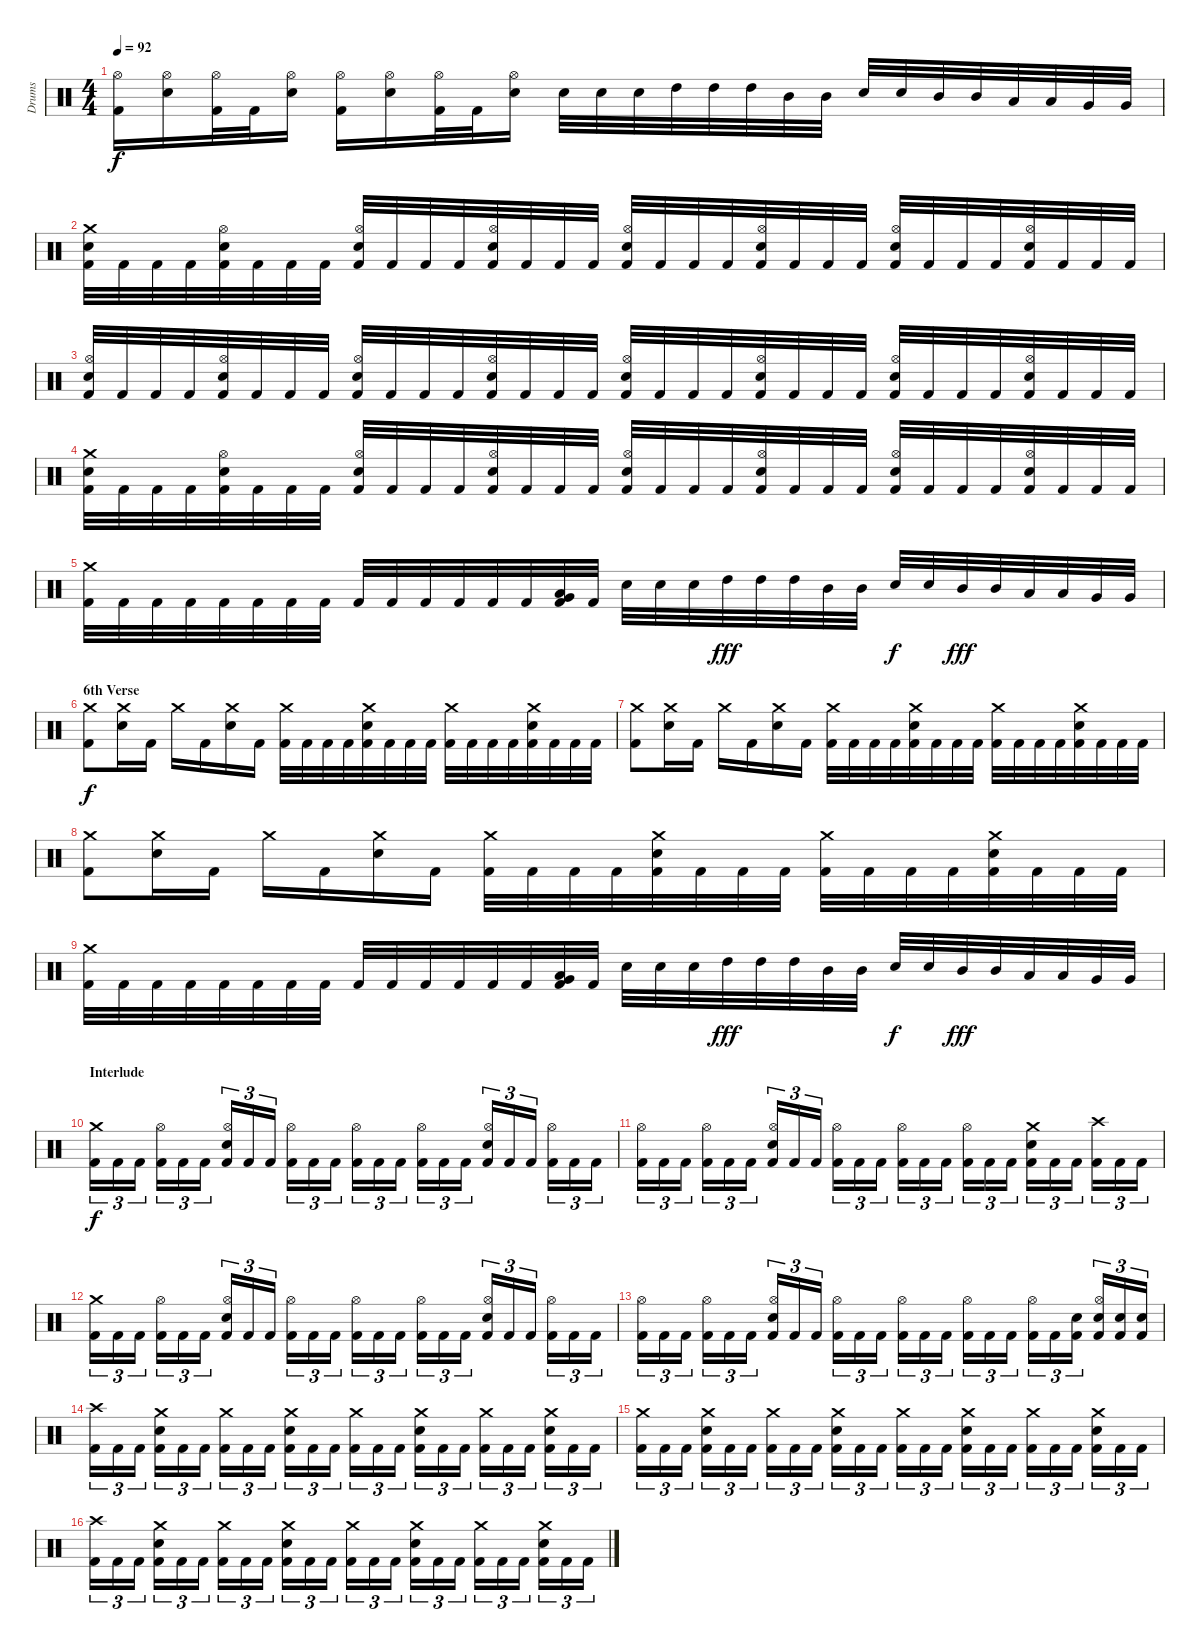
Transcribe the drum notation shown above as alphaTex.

\track ("Drums" "Drums") {instrument percussion}
\staff {score}
\articulation defaults
\ts (4 4)
\tempo 92
\clef neutral
\ks c
("Kick (hit) 2" "Hi-Hat (open)").16{dy f} ("Electric Snare (hit)" "Hi-Hat (open)").16 ("Kick (hit) 2" "Hi-Hat (open)").32 "Kick (hit) 2".32 ("Electric Snare (hit)" "Hi-Hat (open)").16 ("Kick (hit) 2" "Hi-Hat (open)").16 ("Electric Snare (hit)" "Hi-Hat (open)").16 ("Kick (hit) 2" "Hi-Hat (open)").32 "Kick (hit) 2".32 ("Electric Snare (hit)" "Hi-Hat (open)").16 "Electric Snare (hit)".32 "Electric Snare (hit)".32 "Electric Snare (hit)".32 "High Tom (hit)".32 "High Tom (hit)".32 "High Tom (hit)".32 "Mid Tom (hit)".32 "Mid Tom (hit)".32 "Electric Snare (hit)".32 "Electric Snare (hit)".32 "Mid Tom (hit)".32 "Mid Tom (hit)".32 "Low Tom (hit)".32 "Low Tom (hit)".32 "Very Low Tom (hit)".32 "Very Low Tom (hit)".32 |
("Kick (hit) 2" "Electric Snare (hit)" "Crash medium (hit)").32 "Kick (hit) 2".32 "Kick (hit) 2".32 "Kick (hit) 2".32 ("Kick (hit) 2" "Electric Snare (hit)" "Hi-Hat (open)").32 "Kick (hit) 2".32 "Kick (hit) 2".32 "Kick (hit) 2".32 ("Kick (hit) 2" "Electric Snare (hit)" "Hi-Hat (open)").32 "Kick (hit) 2".32 "Kick (hit) 2".32 "Kick (hit) 2".32 ("Kick (hit) 2" "Electric Snare (hit)" "Hi-Hat (open)").32 "Kick (hit) 2".32 "Kick (hit) 2".32 "Kick (hit) 2".32 ("Kick (hit) 2" "Electric Snare (hit)" "Hi-Hat (open)").32 "Kick (hit) 2".32 "Kick (hit) 2".32 "Kick (hit) 2".32 ("Kick (hit) 2" "Electric Snare (hit)" "Hi-Hat (open)").32 "Kick (hit) 2".32 "Kick (hit) 2".32 "Kick (hit) 2".32 ("Kick (hit) 2" "Electric Snare (hit)" "Hi-Hat (open)").32 "Kick (hit) 2".32 "Kick (hit) 2".32 "Kick (hit) 2".32 ("Kick (hit) 2" "Electric Snare (hit)" "Hi-Hat (open)").32 "Kick (hit) 2".32 "Kick (hit) 2".32 "Kick (hit) 2".32 |
("Kick (hit) 2" "Electric Snare (hit)" "Hi-Hat (open)").32 "Kick (hit) 2".32 "Kick (hit) 2".32 "Kick (hit) 2".32 ("Kick (hit) 2" "Electric Snare (hit)" "Hi-Hat (open)").32 "Kick (hit) 2".32 "Kick (hit) 2".32 "Kick (hit) 2".32 ("Kick (hit) 2" "Electric Snare (hit)" "Hi-Hat (open)").32 "Kick (hit) 2".32 "Kick (hit) 2".32 "Kick (hit) 2".32 ("Kick (hit) 2" "Electric Snare (hit)" "Hi-Hat (open)").32 "Kick (hit) 2".32 "Kick (hit) 2".32 "Kick (hit) 2".32 ("Kick (hit) 2" "Electric Snare (hit)" "Hi-Hat (open)").32 "Kick (hit) 2".32 "Kick (hit) 2".32 "Kick (hit) 2".32 ("Kick (hit) 2" "Electric Snare (hit)" "Hi-Hat (open)").32 "Kick (hit) 2".32 "Kick (hit) 2".32 "Kick (hit) 2".32 ("Kick (hit) 2" "Electric Snare (hit)" "Hi-Hat (open)").32 "Kick (hit) 2".32 "Kick (hit) 2".32 "Kick (hit) 2".32 ("Kick (hit) 2" "Electric Snare (hit)" "Hi-Hat (open)").32 "Kick (hit) 2".32 "Kick (hit) 2".32 "Kick (hit) 2".32 |
("Kick (hit) 2" "Electric Snare (hit)" "Crash medium (hit)").32 "Kick (hit) 2".32 "Kick (hit) 2".32 "Kick (hit) 2".32 ("Kick (hit) 2" "Electric Snare (hit)" "Hi-Hat (open)").32 "Kick (hit) 2".32 "Kick (hit) 2".32 "Kick (hit) 2".32 ("Kick (hit) 2" "Electric Snare (hit)" "Hi-Hat (open)").32 "Kick (hit) 2".32 "Kick (hit) 2".32 "Kick (hit) 2".32 ("Kick (hit) 2" "Electric Snare (hit)" "Hi-Hat (open)").32 "Kick (hit) 2".32 "Kick (hit) 2".32 "Kick (hit) 2".32 ("Kick (hit) 2" "Electric Snare (hit)" "Hi-Hat (open)").32 "Kick (hit) 2".32 "Kick (hit) 2".32 "Kick (hit) 2".32 ("Kick (hit) 2" "Electric Snare (hit)" "Hi-Hat (open)").32 "Kick (hit) 2".32 "Kick (hit) 2".32 "Kick (hit) 2".32 ("Kick (hit) 2" "Electric Snare (hit)" "Hi-Hat (open)").32 "Kick (hit) 2".32 "Kick (hit) 2".32 "Kick (hit) 2".32 ("Kick (hit) 2" "Electric Snare (hit)" "Hi-Hat (open)").32 "Kick (hit) 2".32 "Kick (hit) 2".32 "Kick (hit) 2".32 |
("Kick (hit) 2" "Crash medium (hit)").32 "Kick (hit) 2".32 "Kick (hit) 2".32 "Kick (hit) 2".32 "Kick (hit) 2".32 "Kick (hit) 2".32 "Kick (hit) 2".32 "Kick (hit) 2".32 "Kick (hit) 2".32 "Kick (hit) 2".32 "Kick (hit) 2".32 "Kick (hit) 2".32 "Kick (hit) 2".32 "Kick (hit) 2".32 ("Kick (hit) 2" "Low Tom (hit)" "Very Low Tom (hit)").32 "Kick (hit) 2".32 "Electric Snare (hit)".32 "Electric Snare (hit)".32 "Electric Snare (hit)".32 "High Tom (hit)".32{dy fff} "High Tom (hit)".32 "High Tom (hit)".32 "Mid Tom (hit)".32 "Mid Tom (hit)".32 "Electric Snare (hit)".32{dy f} "Electric Snare (hit)".32 "Mid Tom (hit)".32{dy fff} "Mid Tom (hit)".32 "Low Tom (hit)".32 "Low Tom (hit)".32 "Very Low Tom (hit)".32 "Very Low Tom (hit)".32 |
\section ("" "6th Verse")
("Kick (hit) 2" "Crash medium (hit)").8{dy f} ("Electric Snare (hit)" "Crash medium (hit)").16 "Kick (hit) 2".16 "Crash medium (hit)".16 "Kick (hit) 2".16 ("Electric Snare (hit)" "Crash medium (hit)").16 "Kick (hit) 2".16 ("Kick (hit) 2" "Crash medium (hit)").32 "Kick (hit) 2".32 "Kick (hit) 2".32 "Kick (hit) 2".32 ("Kick (hit) 2" "Electric Snare (hit)" "Crash medium (hit)").32 "Kick (hit) 2".32 "Kick (hit) 2".32 "Kick (hit) 2".32 ("Kick (hit) 2" "Crash medium (hit)").32 "Kick (hit) 2".32 "Kick (hit) 2".32 "Kick (hit) 2".32 ("Kick (hit) 2" "Electric Snare (hit)" "Crash medium (hit)").32 "Kick (hit) 2".32 "Kick (hit) 2".32 "Kick (hit) 2".32 |
("Kick (hit) 2" "Crash medium (hit)").8 ("Electric Snare (hit)" "Crash medium (hit)").16 "Kick (hit) 2".16 "Crash medium (hit)".16 "Kick (hit) 2".16 ("Electric Snare (hit)" "Crash medium (hit)").16 "Kick (hit) 2".16 ("Kick (hit) 2" "Crash medium (hit)").32 "Kick (hit) 2".32 "Kick (hit) 2".32 "Kick (hit) 2".32 ("Kick (hit) 2" "Electric Snare (hit)" "Crash medium (hit)").32 "Kick (hit) 2".32 "Kick (hit) 2".32 "Kick (hit) 2".32 ("Kick (hit) 2" "Crash medium (hit)").32 "Kick (hit) 2".32 "Kick (hit) 2".32 "Kick (hit) 2".32 ("Kick (hit) 2" "Electric Snare (hit)" "Crash medium (hit)").32 "Kick (hit) 2".32 "Kick (hit) 2".32 "Kick (hit) 2".32 |
("Kick (hit) 2" "Crash medium (hit)").8 ("Electric Snare (hit)" "Crash medium (hit)").16 "Kick (hit) 2".16 "Crash medium (hit)".16 "Kick (hit) 2".16 ("Electric Snare (hit)" "Crash medium (hit)").16 "Kick (hit) 2".16 ("Kick (hit) 2" "Crash medium (hit)").32 "Kick (hit) 2".32 "Kick (hit) 2".32 "Kick (hit) 2".32 ("Kick (hit) 2" "Electric Snare (hit)" "Crash medium (hit)").32 "Kick (hit) 2".32 "Kick (hit) 2".32 "Kick (hit) 2".32 ("Kick (hit) 2" "Crash medium (hit)").32 "Kick (hit) 2".32 "Kick (hit) 2".32 "Kick (hit) 2".32 ("Kick (hit) 2" "Electric Snare (hit)" "Crash medium (hit)").32 "Kick (hit) 2".32 "Kick (hit) 2".32 "Kick (hit) 2".32 |
("Kick (hit) 2" "Crash medium (hit)").32 "Kick (hit) 2".32 "Kick (hit) 2".32 "Kick (hit) 2".32 "Kick (hit) 2".32 "Kick (hit) 2".32 "Kick (hit) 2".32 "Kick (hit) 2".32 "Kick (hit) 2".32 "Kick (hit) 2".32 "Kick (hit) 2".32 "Kick (hit) 2".32 "Kick (hit) 2".32 "Kick (hit) 2".32 ("Kick (hit) 2" "Low Tom (hit)" "Very Low Tom (hit)").32 "Kick (hit) 2".32 "Electric Snare (hit)".32 "Electric Snare (hit)".32 "Electric Snare (hit)".32 "High Tom (hit)".32{dy fff} "High Tom (hit)".32 "High Tom (hit)".32 "Mid Tom (hit)".32 "Mid Tom (hit)".32 "Electric Snare (hit)".32{dy f} "Electric Snare (hit)".32 "Mid Tom (hit)".32{dy fff} "Mid Tom (hit)".32 "Low Tom (hit)".32 "Low Tom (hit)".32 "Very Low Tom (hit)".32 "Very Low Tom (hit)".32 |
\section ("" "Interlude")
("Kick (hit) 2" "Crash medium (hit)").16{tu (3 2) dy f} "Kick (hit) 2".16{tu (3 2)} "Kick (hit) 2".16{tu (3 2)} ("Kick (hit) 2" "Hi-Hat (open)").16{tu (3 2)} "Kick (hit) 2".16{tu (3 2)} "Kick (hit) 2".16{tu (3 2)} ("Kick (hit) 2" "Electric Snare (hit)" "Hi-Hat (open)").16{tu (3 2)} "Kick (hit) 2".16{tu (3 2)} "Kick (hit) 2".16{tu (3 2)} ("Kick (hit) 2" "Hi-Hat (open)").16{tu (3 2)} "Kick (hit) 2".16{tu (3 2)} "Kick (hit) 2".16{tu (3 2)} ("Kick (hit) 2" "Hi-Hat (open)").16{tu (3 2)} "Kick (hit) 2".16{tu (3 2)} "Kick (hit) 2".16{tu (3 2)} ("Kick (hit) 2" "Hi-Hat (open)").16{tu (3 2)} "Kick (hit) 2".16{tu (3 2)} "Kick (hit) 2".16{tu (3 2)} ("Kick (hit) 2" "Electric Snare (hit)" "Hi-Hat (open)").16{tu (3 2)} "Kick (hit) 2".16{tu (3 2)} "Kick (hit) 2".16{tu (3 2)} ("Kick (hit) 2" "Hi-Hat (open)").16{tu (3 2)} "Kick (hit) 2".16{tu (3 2)} "Kick (hit) 2".16{tu (3 2)} |
("Kick (hit) 2" "Hi-Hat (open)").16{tu (3 2)} "Kick (hit) 2".16{tu (3 2)} "Kick (hit) 2".16{tu (3 2)} ("Kick (hit) 2" "Hi-Hat (open)").16{tu (3 2)} "Kick (hit) 2".16{tu (3 2)} "Kick (hit) 2".16{tu (3 2)} ("Kick (hit) 2" "Electric Snare (hit)" "Hi-Hat (open)").16{tu (3 2)} "Kick (hit) 2".16{tu (3 2)} "Kick (hit) 2".16{tu (3 2)} ("Kick (hit) 2" "Hi-Hat (open)").16{tu (3 2)} "Kick (hit) 2".16{tu (3 2)} "Kick (hit) 2".16{tu (3 2)} ("Kick (hit) 2" "Hi-Hat (open)").16{tu (3 2)} "Kick (hit) 2".16{tu (3 2)} "Kick (hit) 2".16{tu (3 2)} ("Kick (hit) 2" "Hi-Hat (open)").16{tu (3 2)} "Kick (hit) 2".16{tu (3 2)} "Kick (hit) 2".16{tu (3 2)} ("Kick (hit) 2" "Electric Snare (hit)" "Crash medium (hit)").16{tu (3 2)} "Kick (hit) 2".16{tu (3 2)} "Kick (hit) 2".16{tu (3 2)} ("Kick (hit) 2" "Crash high (hit)").16{tu (3 2)} "Kick (hit) 2".16{tu (3 2)} "Kick (hit) 2".16{tu (3 2)} |
("Kick (hit) 2" "Crash medium (hit)").16{tu (3 2)} "Kick (hit) 2".16{tu (3 2)} "Kick (hit) 2".16{tu (3 2)} ("Kick (hit) 2" "Hi-Hat (open)").16{tu (3 2)} "Kick (hit) 2".16{tu (3 2)} "Kick (hit) 2".16{tu (3 2)} ("Kick (hit) 2" "Electric Snare (hit)" "Hi-Hat (open)").16{tu (3 2)} "Kick (hit) 2".16{tu (3 2)} "Kick (hit) 2".16{tu (3 2)} ("Kick (hit) 2" "Hi-Hat (open)").16{tu (3 2)} "Kick (hit) 2".16{tu (3 2)} "Kick (hit) 2".16{tu (3 2)} ("Kick (hit) 2" "Hi-Hat (open)").16{tu (3 2)} "Kick (hit) 2".16{tu (3 2)} "Kick (hit) 2".16{tu (3 2)} ("Kick (hit) 2" "Hi-Hat (open)").16{tu (3 2)} "Kick (hit) 2".16{tu (3 2)} "Kick (hit) 2".16{tu (3 2)} ("Kick (hit) 2" "Electric Snare (hit)" "Hi-Hat (open)").16{tu (3 2)} "Kick (hit) 2".16{tu (3 2)} "Kick (hit) 2".16{tu (3 2)} ("Kick (hit) 2" "Hi-Hat (open)").16{tu (3 2)} "Kick (hit) 2".16{tu (3 2)} "Kick (hit) 2".16{tu (3 2)} |
("Kick (hit) 2" "Hi-Hat (open)").16{tu (3 2)} "Kick (hit) 2".16{tu (3 2)} "Kick (hit) 2".16{tu (3 2)} ("Kick (hit) 2" "Hi-Hat (open)").16{tu (3 2)} "Kick (hit) 2".16{tu (3 2)} "Kick (hit) 2".16{tu (3 2)} ("Kick (hit) 2" "Electric Snare (hit)" "Hi-Hat (open)").16{tu (3 2)} "Kick (hit) 2".16{tu (3 2)} "Kick (hit) 2".16{tu (3 2)} ("Kick (hit) 2" "Hi-Hat (open)").16{tu (3 2)} "Kick (hit) 2".16{tu (3 2)} "Kick (hit) 2".16{tu (3 2)} ("Kick (hit) 2" "Hi-Hat (open)").16{tu (3 2)} "Kick (hit) 2".16{tu (3 2)} "Kick (hit) 2".16{tu (3 2)} ("Kick (hit) 2" "Hi-Hat (open)").16{tu (3 2)} "Kick (hit) 2".16{tu (3 2)} "Kick (hit) 2".16{tu (3 2)} ("Kick (hit) 2" "Hi-Hat (open)").16{tu (3 2)} "Kick (hit) 2".16{tu (3 2)} ("Kick (hit) 2" "Electric Snare (hit)").16{tu (3 2)} ("Kick (hit) 2" "Electric Snare (hit)" "Hi-Hat (open)").16{tu (3 2)} ("Kick (hit) 2" "Electric Snare (hit)").16{tu (3 2)} ("Kick (hit) 2" "Electric Snare (hit)").16{tu (3 2)} |
("Kick (hit) 2" "Crash high (hit)").16{tu (3 2)} "Kick (hit) 2".16{tu (3 2)} "Kick (hit) 2".16{tu (3 2)} ("Kick (hit) 2" "Electric Snare (hit)" "Crash medium (hit)").16{tu (3 2)} "Kick (hit) 2".16{tu (3 2)} "Kick (hit) 2".16{tu (3 2)} ("Kick (hit) 2" "Crash medium (hit)").16{tu (3 2)} "Kick (hit) 2".16{tu (3 2)} "Kick (hit) 2".16{tu (3 2)} ("Kick (hit) 2" "Electric Snare (hit)" "Crash medium (hit)").16{tu (3 2)} "Kick (hit) 2".16{tu (3 2)} "Kick (hit) 2".16{tu (3 2)} ("Kick (hit) 2" "Crash medium (hit)").16{tu (3 2)} "Kick (hit) 2".16{tu (3 2)} "Kick (hit) 2".16{tu (3 2)} ("Kick (hit) 2" "Electric Snare (hit)" "Crash medium (hit)").16{tu (3 2)} "Kick (hit) 2".16{tu (3 2)} "Kick (hit) 2".16{tu (3 2)} ("Kick (hit) 2" "Crash medium (hit)").16{tu (3 2)} "Kick (hit) 2".16{tu (3 2)} "Kick (hit) 2".16{tu (3 2)} ("Kick (hit) 2" "Electric Snare (hit)" "Crash medium (hit)").16{tu (3 2)} "Kick (hit) 2".16{tu (3 2)} "Kick (hit) 2".16{tu (3 2)} |
("Kick (hit) 2" "Crash medium (hit)").16{tu (3 2)} "Kick (hit) 2".16{tu (3 2)} "Kick (hit) 2".16{tu (3 2)} ("Kick (hit) 2" "Electric Snare (hit)" "Crash medium (hit)").16{tu (3 2)} "Kick (hit) 2".16{tu (3 2)} "Kick (hit) 2".16{tu (3 2)} ("Kick (hit) 2" "Crash medium (hit)").16{tu (3 2)} "Kick (hit) 2".16{tu (3 2)} "Kick (hit) 2".16{tu (3 2)} ("Kick (hit) 2" "Electric Snare (hit)" "Crash medium (hit)").16{tu (3 2)} "Kick (hit) 2".16{tu (3 2)} "Kick (hit) 2".16{tu (3 2)} ("Kick (hit) 2" "Crash medium (hit)").16{tu (3 2)} "Kick (hit) 2".16{tu (3 2)} "Kick (hit) 2".16{tu (3 2)} ("Kick (hit) 2" "Electric Snare (hit)" "Crash medium (hit)").16{tu (3 2)} "Kick (hit) 2".16{tu (3 2)} "Kick (hit) 2".16{tu (3 2)} ("Kick (hit) 2" "Crash medium (hit)").16{tu (3 2)} "Kick (hit) 2".16{tu (3 2)} "Kick (hit) 2".16{tu (3 2)} ("Kick (hit) 2" "Electric Snare (hit)" "Crash medium (hit)").16{tu (3 2)} "Kick (hit) 2".16{tu (3 2)} "Kick (hit) 2".16{tu (3 2)} |
("Kick (hit) 2" "Crash high (hit)").16{tu (3 2)} "Kick (hit) 2".16{tu (3 2)} "Kick (hit) 2".16{tu (3 2)} ("Kick (hit) 2" "Electric Snare (hit)" "Crash medium (hit)").16{tu (3 2)} "Kick (hit) 2".16{tu (3 2)} "Kick (hit) 2".16{tu (3 2)} ("Kick (hit) 2" "Crash medium (hit)").16{tu (3 2)} "Kick (hit) 2".16{tu (3 2)} "Kick (hit) 2".16{tu (3 2)} ("Kick (hit) 2" "Electric Snare (hit)" "Crash medium (hit)").16{tu (3 2)} "Kick (hit) 2".16{tu (3 2)} "Kick (hit) 2".16{tu (3 2)} ("Kick (hit) 2" "Crash medium (hit)").16{tu (3 2)} "Kick (hit) 2".16{tu (3 2)} "Kick (hit) 2".16{tu (3 2)} ("Kick (hit) 2" "Electric Snare (hit)" "Crash medium (hit)").16{tu (3 2)} "Kick (hit) 2".16{tu (3 2)} "Kick (hit) 2".16{tu (3 2)} ("Kick (hit) 2" "Crash medium (hit)").16{tu (3 2)} "Kick (hit) 2".16{tu (3 2)} "Kick (hit) 2".16{tu (3 2)} ("Kick (hit) 2" "Electric Snare (hit)" "Crash medium (hit)").16{tu (3 2)} "Kick (hit) 2".16{tu (3 2)} "Kick (hit) 2".16{tu (3 2)}
